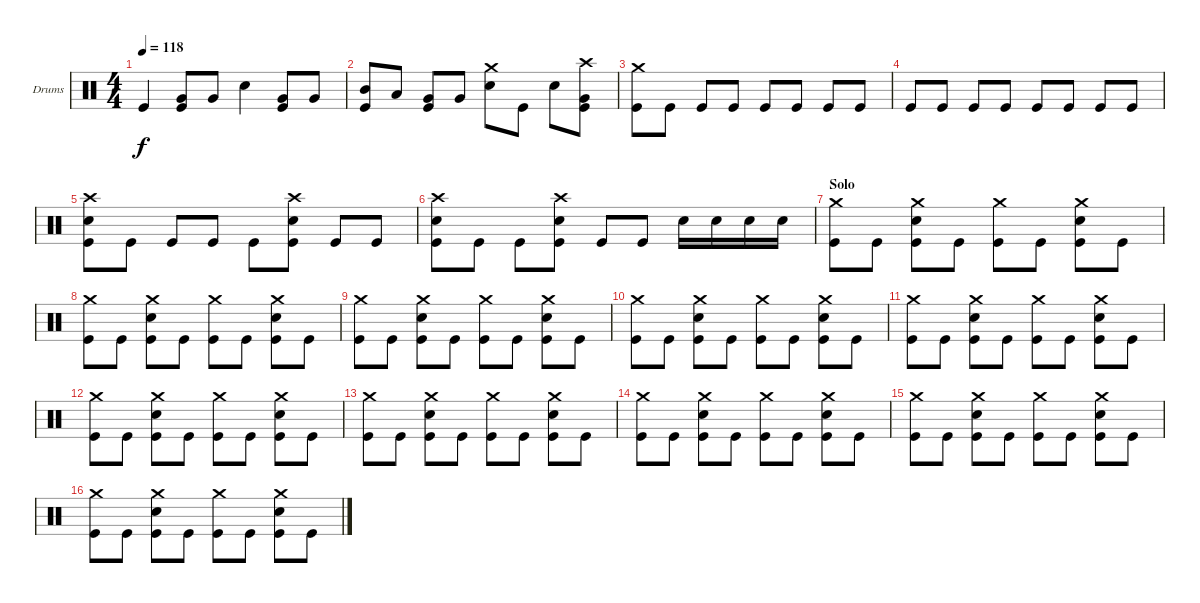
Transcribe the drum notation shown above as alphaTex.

\bracketExtendMode groupsimilarinstruments
\firstSystemTrackNameOrientation horizontal
\otherSystemsTrackNameOrientation horizontal
\track ("Drumkit" "Drums") {solo instrument percussion}
\staff {score}
\articulation defaults
\ts (4 4)
\tempo 118
\clef neutral
\ks c "Kick (hit)".4{dy f}
("Kick (hit)" "Very Low Tom (hit)").8 "Very Low Tom (hit)".8 "Snare (hit) 2".4 ("Kick (hit)" "Very Low Tom (hit)").8 "Very Low Tom (hit)".8 |
("Kick (hit)" "Mid Tom (hit)").8 "Low Tom (hit)".8 ("Kick (hit)" "Very Low Tom (hit)").8 "Very Low Tom (hit)".8 ("Snare (hit) 2" "Crash medium (hit)").8 "Kick (hit)".8 "Snare (hit) 2".8 ("Kick (hit)" "Very Low Tom (hit)" "Crash high (hit)").8 |
("Kick (hit)" "Crash medium (hit)").8 "Kick (hit)".8 "Kick (hit)".8 "Kick (hit)".8 "Kick (hit)".8 "Kick (hit)".8 "Kick (hit)".8 "Kick (hit)".8 |
"Kick (hit)".8 "Kick (hit)".8 "Kick (hit)".8 "Kick (hit)".8 "Kick (hit)".8 "Kick (hit)".8 "Kick (hit)".8 "Kick (hit)".8 |
("Kick (hit)" "Snare (hit) 2" "Crash high (hit)").8 "Kick (hit)".8 "Kick (hit)".8 "Kick (hit)".8 "Kick (hit)".8 ("Kick (hit)" "Snare (hit) 2" "Crash high (hit)").8 "Kick (hit)".8 "Kick (hit)".8 |
("Kick (hit)" "Snare (hit) 2" "Crash high (hit)").8 "Kick (hit)".8 "Kick (hit)".8 ("Kick (hit)" "Snare (hit) 2" "Crash high (hit)").8 "Kick (hit)".8 "Kick (hit)".8 "Snare (hit) 2".16 "Snare (hit) 2".16 "Snare (hit) 2".16 "Snare (hit) 2".16 |
\section ("" "Solo")
("Kick (hit)" "Crash medium (hit)").8 "Kick (hit)".8 ("Kick (hit)" "Snare (hit) 2" "Crash medium (hit)").8 "Kick (hit)".8 ("Kick (hit)" "Crash medium (hit)").8 "Kick (hit)".8 ("Kick (hit)" "Snare (hit) 2" "Crash medium (hit)").8 "Kick (hit)".8 |
("Kick (hit)" "Crash medium (hit)").8 "Kick (hit)".8 ("Kick (hit)" "Snare (hit) 2" "Crash medium (hit)").8 "Kick (hit)".8 ("Kick (hit)" "Crash medium (hit)").8 "Kick (hit)".8 ("Kick (hit)" "Snare (hit) 2" "Crash medium (hit)").8 "Kick (hit)".8 |
("Kick (hit)" "Crash medium (hit)").8 "Kick (hit)".8 ("Kick (hit)" "Snare (hit) 2" "Crash medium (hit)").8 "Kick (hit)".8 ("Kick (hit)" "Crash medium (hit)").8 "Kick (hit)".8 ("Kick (hit)" "Snare (hit) 2" "Crash medium (hit)").8 "Kick (hit)".8 |
("Kick (hit)" "Crash medium (hit)").8 "Kick (hit)".8 ("Kick (hit)" "Snare (hit) 2" "Crash medium (hit)").8 "Kick (hit)".8 ("Kick (hit)" "Crash medium (hit)").8 "Kick (hit)".8 ("Kick (hit)" "Snare (hit) 2" "Crash medium (hit)").8 "Kick (hit)".8 |
("Kick (hit)" "Crash medium (hit)").8 "Kick (hit)".8 ("Kick (hit)" "Snare (hit) 2" "Crash medium (hit)").8 "Kick (hit)".8 ("Kick (hit)" "Crash medium (hit)").8 "Kick (hit)".8 ("Kick (hit)" "Snare (hit) 2" "Crash medium (hit)").8 "Kick (hit)".8 |
("Kick (hit)" "Crash medium (hit)").8 "Kick (hit)".8 ("Kick (hit)" "Snare (hit) 2" "Crash medium (hit)").8 "Kick (hit)".8 ("Kick (hit)" "Crash medium (hit)").8 "Kick (hit)".8 ("Kick (hit)" "Snare (hit) 2" "Crash medium (hit)").8 "Kick (hit)".8 |
("Kick (hit)" "Crash medium (hit)").8 "Kick (hit)".8 ("Kick (hit)" "Snare (hit) 2" "Crash medium (hit)").8 "Kick (hit)".8 ("Kick (hit)" "Crash medium (hit)").8 "Kick (hit)".8 ("Kick (hit)" "Snare (hit) 2" "Crash medium (hit)").8 "Kick (hit)".8 |
("Kick (hit)" "Crash medium (hit)").8 "Kick (hit)".8 ("Kick (hit)" "Snare (hit) 2" "Crash medium (hit)").8 "Kick (hit)".8 ("Kick (hit)" "Crash medium (hit)").8 "Kick (hit)".8 ("Kick (hit)" "Snare (hit) 2" "Crash medium (hit)").8 "Kick (hit)".8 |
("Kick (hit)" "Crash medium (hit)").8 "Kick (hit)".8 ("Kick (hit)" "Snare (hit) 2" "Crash medium (hit)").8 "Kick (hit)".8 ("Kick (hit)" "Crash medium (hit)").8 "Kick (hit)".8 ("Kick (hit)" "Snare (hit) 2" "Crash medium (hit)").8 "Kick (hit)".8 |
("Kick (hit)" "Crash medium (hit)").8 "Kick (hit)".8 ("Kick (hit)" "Snare (hit) 2" "Crash medium (hit)").8 "Kick (hit)".8 ("Kick (hit)" "Crash medium (hit)").8 "Kick (hit)".8 ("Kick (hit)" "Snare (hit) 2" "Crash medium (hit)").8 "Kick (hit)".8
